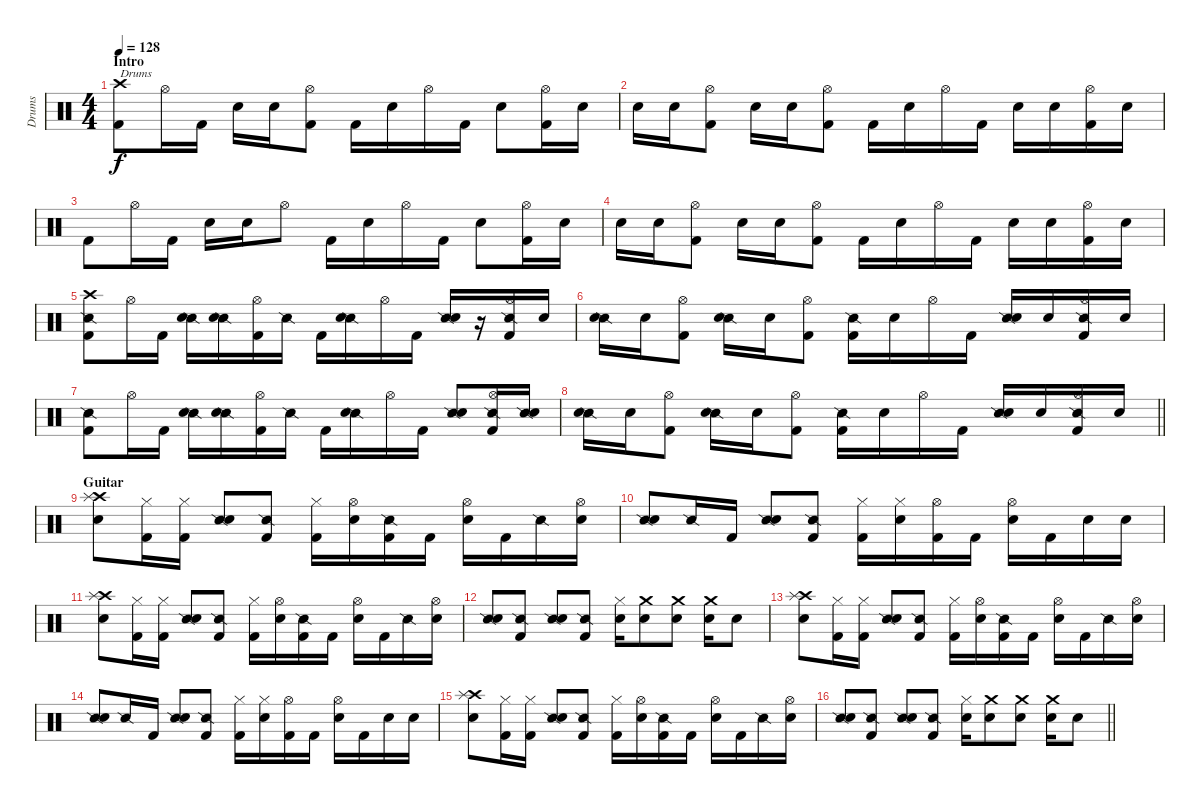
\track ("Drums" "Drums") {instrument percussion}
\staff {score}
\articulation defaults
\ts (4 4)
\section ("" "Intro")
\tempo 128
\clef neutral
\ks c
("Crash high (hit)" "Kick (hit) 2").8{txt "Drums" dy f} "Hi-Hat (open)".16 "Kick (hit) 2".16 "Snare (hit) 2".16 "Snare (hit) 2".16 ("Hi-Hat (open)" "Kick (hit) 2").8 "Kick (hit) 2".16 "Snare (hit) 2".16 "Hi-Hat (open)".16 "Kick (hit) 2".16 "Snare (hit) 2".8 ("Hi-Hat (open)" "Kick (hit) 2").16 "Snare (hit) 2".16 |
"Snare (hit) 2".16 "Snare (hit) 2".16 ("Hi-Hat (open)" "Kick (hit) 2").8 "Snare (hit) 2".16 "Snare (hit) 2".16 ("Hi-Hat (open)" "Kick (hit) 2").8 "Kick (hit) 2".16 "Snare (hit) 2".16 "Hi-Hat (open)".16 "Kick (hit) 2".16 "Snare (hit) 2".16 "Snare (hit) 2".16 ("Hi-Hat (open)" "Kick (hit) 2").16 "Snare (hit) 2".16 |
"Kick (hit) 2".8 "Hi-Hat (open)".16 "Kick (hit) 2".16 "Snare (hit) 2".16 "Snare (hit) 2".16 "Hi-Hat (open)".8 "Kick (hit) 2".16 "Snare (hit) 2".16 "Hi-Hat (open)".16 "Kick (hit) 2".16 "Snare (hit) 2".8 ("Hi-Hat (open)" "Kick (hit) 2").16 "Snare (hit) 2".16 |
"Snare (hit) 2".16 "Snare (hit) 2".16 ("Hi-Hat (open)" "Kick (hit) 2").8 "Snare (hit) 2".16 "Snare (hit) 2".16 ("Hi-Hat (open)" "Kick (hit) 2").8 "Kick (hit) 2".16 "Snare (hit) 2".16 "Hi-Hat (open)".16 "Kick (hit) 2".16 "Snare (hit) 2".16 "Snare (hit) 2".16 ("Hi-Hat (open)" "Kick (hit) 2").16 "Snare (hit) 2".16 |
("Crash high (hit)" "Snare (side stick) 2" "Kick (hit) 2").8 "Hi-Hat (open)".16 "Kick (hit) 2".16 ("Snare (side stick) 2" "Snare (hit) 2").16 ("Snare (side stick) 2" "Snare (hit) 2").16 ("Hi-Hat (open)" "Kick (hit) 2").16 "Snare (side stick) 2".16 "Kick (hit) 2".16 ("Snare (side stick) 2" "Snare (hit) 2").16 "Hi-Hat (open)".16 "Kick (hit) 2".16 ("Snare (side stick) 2" "Snare (hit) 2").16 r.16 ("Hi-Hat (open)" "Snare (side stick) 2" "Kick (hit) 2").16 "Snare (hit) 2".16 |
("Snare (side stick) 2" "Snare (hit) 2").16 "Snare (hit) 2".16 ("Hi-Hat (open)" "Kick (hit) 2").8 ("Snare (side stick) 2" "Snare (hit) 2").16 "Snare (hit) 2".16 ("Hi-Hat (open)" "Kick (hit) 2").8 ("Snare (side stick) 2" "Kick (hit) 2").16 "Snare (hit) 2".16 "Hi-Hat (open)".16 "Kick (hit) 2".16 ("Snare (side stick) 2" "Snare (hit) 2").16 "Snare (hit) 2".16 ("Hi-Hat (open)" "Snare (side stick) 2" "Kick (hit) 2").16 "Snare (hit) 2".16 |
("Snare (side stick) 2" "Kick (hit) 2").8 "Hi-Hat (open)".16 "Kick (hit) 2".16 ("Snare (side stick) 2" "Snare (hit) 2").16 ("Snare (side stick) 2" "Snare (hit) 2").16 ("Hi-Hat (open)" "Kick (hit) 2").16 "Snare (side stick) 2".16 "Kick (hit) 2".16 ("Snare (side stick) 2" "Snare (hit) 2").16 "Hi-Hat (open)".16 "Kick (hit) 2".16 ("Snare (side stick) 2" "Snare (hit) 2").8 ("Hi-Hat (open)" "Snare (side stick) 2" "Kick (hit) 2").16 ("Snare (side stick) 2" "Snare (hit) 2").16 |
\barLineRight lightlight
("Snare (side stick) 2" "Snare (hit) 2").16 "Snare (hit) 2".16 ("Hi-Hat (open)" "Kick (hit) 2").8 ("Snare (side stick) 2" "Snare (hit) 2").16 "Snare (hit) 2".16 ("Hi-Hat (open)" "Kick (hit) 2").8 ("Snare (side stick) 2" "Kick (hit) 2").16 "Snare (hit) 2".16 "Hi-Hat (open)".16 "Kick (hit) 2".16 ("Snare (side stick) 2" "Snare (hit) 2").16 "Snare (hit) 2".16 ("Hi-Hat (open)" "Snare (side stick) 2" "Kick (hit) 2").16 "Snare (hit) 2".16 |
\section ("" "Guitar")
("Crash high (hit)" "Splash (hit)" "Snare (hit) 2").8 ("Hi-Hat (closed)" "Kick (hit) 2").16 ("Hi-Hat (closed)" "Kick (hit) 2").16 ("Snare (side stick) 2" "Snare (hit) 2").8 ("Snare (side stick) 2" "Kick (hit) 2").8 ("Hi-Hat (closed)" "Kick (hit) 2").16 ("Hi-Hat (open)" "Snare (hit) 2").16 ("Snare (side stick) 2" "Kick (hit) 2").16 "Kick (hit) 2".16 ("Hi-Hat (open)" "Snare (hit) 2").16 "Kick (hit) 2".16 "Snare (side stick) 2".16 ("Hi-Hat (open)" "Snare (hit) 2").16 |
("Snare (side stick) 2" "Snare (hit) 2").8 "Snare (side stick) 2".16 "Kick (hit) 2".16 ("Snare (side stick) 2" "Snare (hit) 2").8 ("Snare (side stick) 2" "Kick (hit) 2").8 ("Hi-Hat (closed)" "Kick (hit) 2").16 ("Hi-Hat (closed)" "Snare (hit) 2").16 ("Hi-Hat (open)" "Kick (hit) 2").16 "Kick (hit) 2".16 ("Hi-Hat (open)" "Snare (hit) 2").16 "Kick (hit) 2".16 "Snare (hit) 2".16 "Snare (hit) 2".16 |
("Crash high (hit)" "Splash (hit)" "Snare (hit) 2").8 ("Hi-Hat (closed)" "Kick (hit) 2").16 ("Hi-Hat (closed)" "Kick (hit) 2").16 ("Snare (side stick) 2" "Snare (hit) 2").8 ("Snare (side stick) 2" "Kick (hit) 2").8 ("Hi-Hat (closed)" "Kick (hit) 2").16 ("Hi-Hat (open)" "Snare (hit) 2").16 ("Snare (side stick) 2" "Kick (hit) 2").16 "Kick (hit) 2".16 ("Hi-Hat (open)" "Snare (hit) 2").16 "Kick (hit) 2".16 "Snare (side stick) 2".16 ("Hi-Hat (open)" "Snare (hit) 2").16 |
("Snare (side stick) 2" "Snare (hit) 2").8 ("Snare (side stick) 2" "Kick (hit) 2").8 ("Snare (side stick) 2" "Snare (hit) 2").8 ("Snare (side stick) 2" "Kick (hit) 2").8 ("Hi-Hat (closed)" "Snare (hit) 2").16 ("Crash medium (hit)" "Snare (hit) 2").8 ("Crash medium (hit)" "Snare (hit) 2").8 ("Crash medium (hit)" "Snare (hit) 2").16 "Snare (hit) 2".8 |
("Crash high (hit)" "Splash (hit)" "Snare (hit) 2").8 ("Hi-Hat (closed)" "Kick (hit) 2").16 ("Hi-Hat (closed)" "Kick (hit) 2").16 ("Snare (side stick) 2" "Snare (hit) 2").8 ("Snare (side stick) 2" "Kick (hit) 2").8 ("Hi-Hat (closed)" "Kick (hit) 2").16 ("Hi-Hat (open)" "Snare (hit) 2").16 ("Snare (side stick) 2" "Kick (hit) 2").16 "Kick (hit) 2".16 ("Hi-Hat (open)" "Snare (hit) 2").16 "Kick (hit) 2".16 "Snare (side stick) 2".16 ("Hi-Hat (open)" "Snare (hit) 2").16 |
("Snare (side stick) 2" "Snare (hit) 2").8 "Snare (side stick) 2".16 "Kick (hit) 2".16 ("Snare (side stick) 2" "Snare (hit) 2").8 ("Snare (side stick) 2" "Kick (hit) 2").8 ("Hi-Hat (closed)" "Kick (hit) 2").16 ("Hi-Hat (closed)" "Snare (hit) 2").16 ("Hi-Hat (open)" "Kick (hit) 2").16 "Kick (hit) 2".16 ("Hi-Hat (open)" "Snare (hit) 2").16 "Kick (hit) 2".16 "Snare (hit) 2".16 "Snare (hit) 2".16 |
("Crash high (hit)" "Splash (hit)" "Snare (hit) 2").8 ("Hi-Hat (closed)" "Kick (hit) 2").16 ("Hi-Hat (closed)" "Kick (hit) 2").16 ("Snare (side stick) 2" "Snare (hit) 2").8 ("Snare (side stick) 2" "Kick (hit) 2").8 ("Hi-Hat (closed)" "Kick (hit) 2").16 ("Hi-Hat (open)" "Snare (hit) 2").16 ("Snare (side stick) 2" "Kick (hit) 2").16 "Kick (hit) 2".16 ("Hi-Hat (open)" "Snare (hit) 2").16 "Kick (hit) 2".16 "Snare (side stick) 2".16 ("Hi-Hat (open)" "Snare (hit) 2").16 |
\barLineRight lightlight
("Snare (side stick) 2" "Snare (hit) 2").8 ("Snare (side stick) 2" "Kick (hit) 2").8 ("Snare (side stick) 2" "Snare (hit) 2").8 ("Snare (side stick) 2" "Kick (hit) 2").8 ("Hi-Hat (closed)" "Snare (hit) 2").16 ("Crash medium (hit)" "Snare (hit) 2").8 ("Crash medium (hit)" "Snare (hit) 2").8 ("Crash medium (hit)" "Snare (hit) 2").16 "Snare (hit) 2".8
